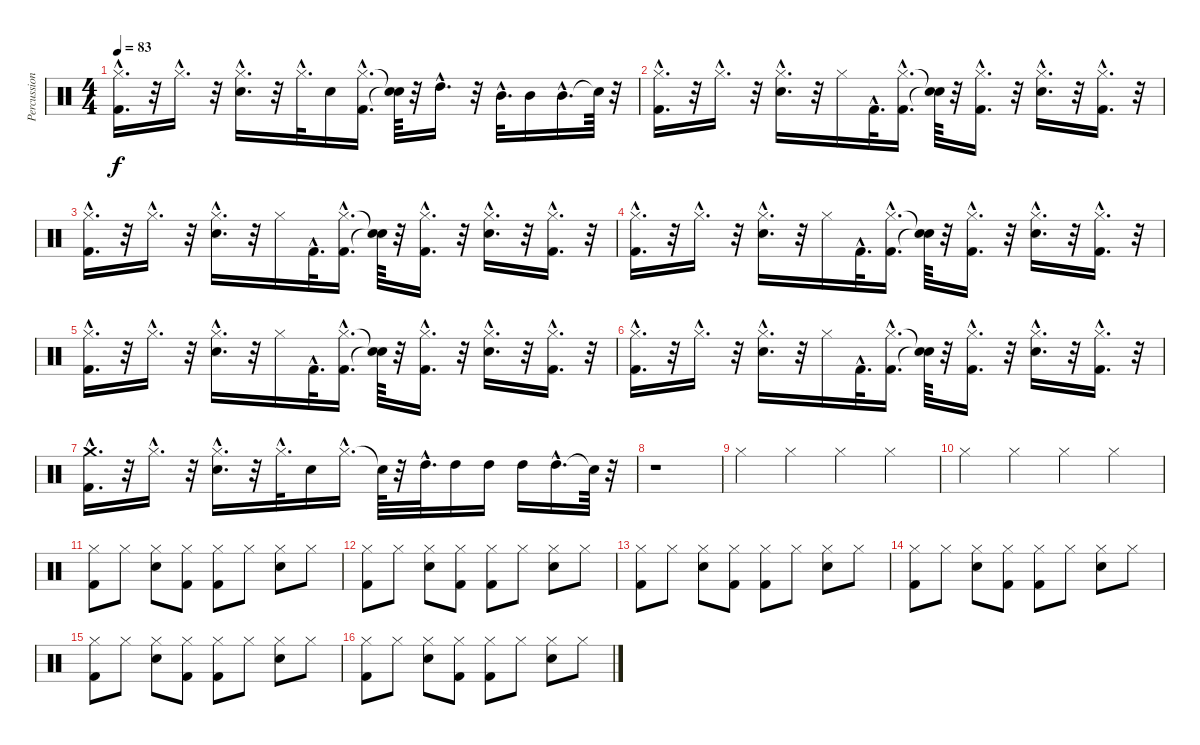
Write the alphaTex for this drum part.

\track ("Percussion" "Percussion") {instrument percussion}
\staff {score}
\articulation defaults
\ts (4 4)
\tempo 83
\clef neutral
\ks c
("Kick (hit) 2"{hac} "Hi-Hat (closed)"{hac}).16{d dy f} r.32 "Hi-Hat (closed)"{hac}.16{d} r.32 ("Hi-Hat (closed)"{hac} "Snare (hit) 2"{hac}).16{d} r.32 "Hi-Hat (closed)"{hac}.32{d} "Snare (hit) 2".16 ("Kick (hit) 2"{hac} "Hi-Hat (closed)"{hac}).16{d} ("Snare (hit)"{t} "Snare (hit)"{t}).64 r.32 "High Tom (hit)"{hac}.16{d} r.32 "Mid Tom (hit)"{hac}.32{d} "Mid Tom (hit)".16 "Mid Tom (hit)"{hac}.16{d} "Snare (hit)"{t}.64 r.32 |
("Kick (hit) 2"{hac} "Hi-Hat (closed)"{hac}).16{d} r.32 "Hi-Hat (closed)"{hac}.16{d} r.32 ("Hi-Hat (closed)"{hac} "Snare (hit) 2"{hac}).16{d} r.32 "Hi-Hat (closed)".16 "Kick (hit) 2"{hac}.32{d} ("Hi-Hat (closed)"{hac} "Kick (hit) 2"{hac}).16{d} ("Snare (hit)"{t} "Snare (hit)"{t}).64 r.32 ("Hi-Hat (closed)"{hac} "Kick (hit) 2"{hac}).16{d} r.32 ("Snare (hit) 2"{hac} "Hi-Hat (closed)"{hac}).16{d} r.32 ("Kick (hit) 2"{hac} "Hi-Hat (closed)"{hac}).16{d} r.32 |
("Kick (hit) 2"{hac} "Hi-Hat (closed)"{hac}).16{d} r.32 "Hi-Hat (closed)"{hac}.16{d} r.32 ("Hi-Hat (closed)"{hac} "Snare (hit) 2"{hac}).16{d} r.32 "Hi-Hat (closed)".16 "Kick (hit) 2"{hac}.32{d} ("Hi-Hat (closed)"{hac} "Kick (hit) 2"{hac}).16{d} ("Snare (hit)"{t} "Snare (hit)"{t}).64 r.32 ("Hi-Hat (closed)"{hac} "Kick (hit) 2"{hac}).16{d} r.32 ("Snare (hit) 2"{hac} "Hi-Hat (closed)"{hac}).16{d} r.32 ("Kick (hit) 2"{hac} "Hi-Hat (closed)"{hac}).16{d} r.32 |
("Kick (hit) 2"{hac} "Hi-Hat (closed)"{hac}).16{d} r.32 "Hi-Hat (closed)"{hac}.16{d} r.32 ("Hi-Hat (closed)"{hac} "Snare (hit) 2"{hac}).16{d} r.32 "Hi-Hat (closed)".16 "Kick (hit) 2"{hac}.32{d} ("Hi-Hat (closed)"{hac} "Kick (hit) 2"{hac}).16{d} ("Snare (hit)"{t} "Snare (hit)"{t}).64 r.32 ("Hi-Hat (closed)"{hac} "Kick (hit) 2"{hac}).16{d} r.32 ("Snare (hit) 2"{hac} "Hi-Hat (closed)"{hac}).16{d} r.32 ("Kick (hit) 2"{hac} "Hi-Hat (closed)"{hac}).16{d} r.32 |
("Kick (hit) 2"{hac} "Hi-Hat (closed)"{hac}).16{d} r.32 "Hi-Hat (closed)"{hac}.16{d} r.32 ("Snare (hit) 2"{hac} "Hi-Hat (closed)"{hac}).16{d} r.32 "Hi-Hat (closed)".16 "Kick (hit) 2"{hac}.32{d} ("Hi-Hat (closed)"{hac} "Kick (hit) 2"{hac}).16{d} ("Snare (hit)"{t} "Snare (hit)"{t}).64 r.32 ("Hi-Hat (closed)"{hac} "Kick (hit) 2"{hac}).16{d} r.32 ("Snare (hit) 2"{hac} "Hi-Hat (closed)"{hac}).16{d} r.32 ("Hi-Hat (closed)"{hac} "Kick (hit) 2"{hac}).16{d} r.32 |
("Kick (hit) 2"{hac} "Hi-Hat (closed)"{hac}).16{d} r.32 "Hi-Hat (closed)"{hac}.16{d} r.32 ("Snare (hit) 2"{hac} "Hi-Hat (closed)"{hac}).16{d} r.32 "Hi-Hat (closed)".16 "Kick (hit) 2"{hac}.32{d} ("Hi-Hat (closed)"{hac} "Kick (hit) 2"{hac}).16{d} ("Snare (hit)"{t} "Snare (hit)"{t}).64 r.32 ("Hi-Hat (closed)"{hac} "Kick (hit) 2"{hac}).16{d} r.32 ("Snare (hit) 2"{hac} "Hi-Hat (closed)"{hac}).16{d} r.32 ("Kick (hit) 2"{hac} "Hi-Hat (closed)"{hac}).16{d} r.32 |
("Crash medium (hit)"{hac} "Kick (hit) 2"{hac}).16{d} r.32 "Hi-Hat (closed)"{hac}.16{d} r.32 ("Snare (hit) 2"{hac} "Hi-Hat (closed)"{hac}).16{d} r.32 "Hi-Hat (closed)"{hac}.32{d} "Snare (hit) 2".16 "Hi-Hat (closed)"{hac}.16{d} "Snare (hit)"{t}.64 r.32 "High Tom (hit)"{hac}.32{d} "High Tom (hit)".16 "High Tom (hit)".16 "High Tom (hit)".16 "High Tom (hit)"{hac}.16{d} "Snare (hit)"{t}.64 r.32 |
r.1 |
"Hi-Hat (closed)".4 "Hi-Hat (closed)".4 "Hi-Hat (closed)".4 "Hi-Hat (closed)".4 |
"Hi-Hat (closed)".4 "Hi-Hat (closed)".4 "Hi-Hat (closed)".4 "Hi-Hat (closed)".4 |
("Kick (hit) 2" "Hi-Hat (closed)").8 "Hi-Hat (closed)".8 ("Hi-Hat (closed)" "Snare (hit) 2").8 ("Hi-Hat (closed)" "Kick (hit) 2").8 ("Kick (hit) 2" "Hi-Hat (closed)").8 "Hi-Hat (closed)".8 ("Hi-Hat (closed)" "Snare (hit) 2").8 "Hi-Hat (closed)".8 |
("Kick (hit) 2" "Hi-Hat (closed)").8 "Hi-Hat (closed)".8 ("Hi-Hat (closed)" "Snare (hit) 2").8 ("Hi-Hat (closed)" "Kick (hit) 2").8 ("Kick (hit) 2" "Hi-Hat (closed)").8 "Hi-Hat (closed)".8 ("Hi-Hat (closed)" "Snare (hit) 2").8 "Hi-Hat (closed)".8 |
("Kick (hit) 2" "Hi-Hat (closed)").8 "Hi-Hat (closed)".8 ("Hi-Hat (closed)" "Snare (hit) 2").8 ("Hi-Hat (closed)" "Kick (hit) 2").8 ("Kick (hit) 2" "Hi-Hat (closed)").8 "Hi-Hat (closed)".8 ("Hi-Hat (closed)" "Snare (hit) 2").8 "Hi-Hat (closed)".8 |
("Kick (hit) 2" "Hi-Hat (closed)").8 "Hi-Hat (closed)".8 ("Hi-Hat (closed)" "Snare (hit) 2").8 ("Hi-Hat (closed)" "Kick (hit) 2").8 ("Kick (hit) 2" "Hi-Hat (closed)").8 "Hi-Hat (closed)".8 ("Hi-Hat (closed)" "Snare (hit) 2").8 "Hi-Hat (closed)".8 |
("Kick (hit) 2" "Hi-Hat (closed)").8 "Hi-Hat (closed)".8 ("Hi-Hat (closed)" "Snare (hit) 2").8 ("Hi-Hat (closed)" "Kick (hit) 2").8 ("Kick (hit) 2" "Hi-Hat (closed)").8 "Hi-Hat (closed)".8 ("Hi-Hat (closed)" "Snare (hit) 2").8 "Hi-Hat (closed)".8 |
("Kick (hit) 2" "Hi-Hat (closed)").8 "Hi-Hat (closed)".8 ("Hi-Hat (closed)" "Snare (hit) 2").8 ("Hi-Hat (closed)" "Kick (hit) 2").8 ("Kick (hit) 2" "Hi-Hat (closed)").8 "Hi-Hat (closed)".8 ("Hi-Hat (closed)" "Snare (hit) 2").8 "Hi-Hat (closed)".8
